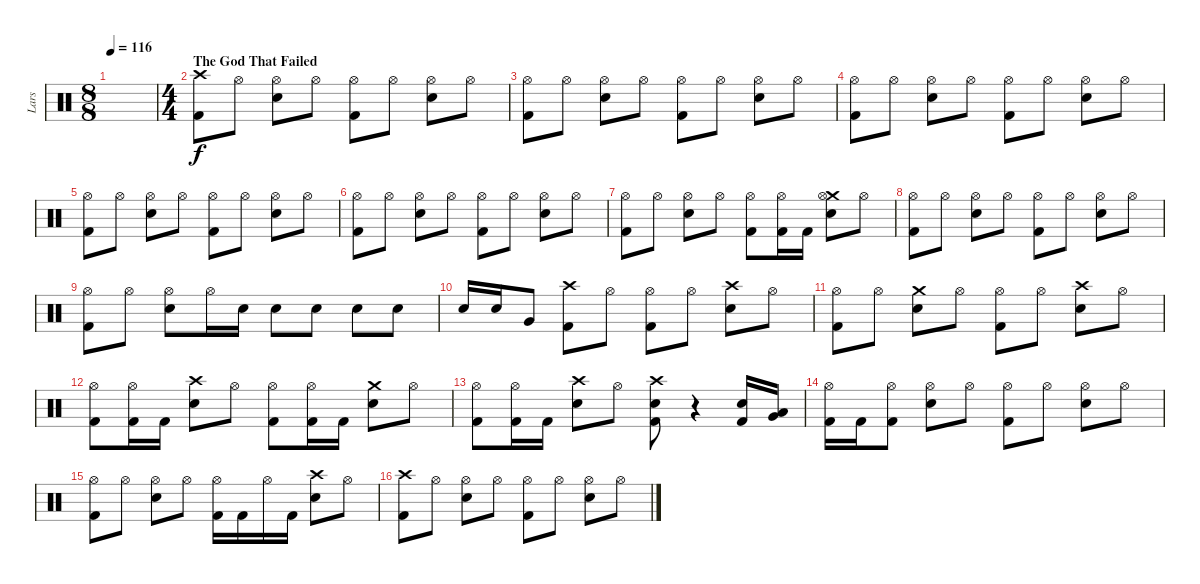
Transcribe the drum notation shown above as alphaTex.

\track ("Lars" "Lars") {instrument percussion}
\staff {score}
\articulation defaults
\ts (8 8)
\tempo 116
\clef neutral
\ks c
|
\ts (4 4)
\section ("" "The God That Failed")
("Crash high (hit)" "Kick (hit) 2").8{dy f} "Hi-Hat (open)".8 ("Snare (hit) 2" "Hi-Hat (open)").8 "Hi-Hat (open)".8 ("Kick (hit) 2" "Hi-Hat (open)").8 "Hi-Hat (open)".8 ("Snare (hit) 2" "Hi-Hat (open)").8 "Hi-Hat (open)".8 |
("Kick (hit) 2" "Hi-Hat (open)").8 "Hi-Hat (open)".8 ("Snare (hit) 2" "Hi-Hat (open)").8 "Hi-Hat (open)".8 ("Kick (hit) 2" "Hi-Hat (open)").8 "Hi-Hat (open)".8 ("Snare (hit) 2" "Hi-Hat (open)").8 "Hi-Hat (open)".8 |
("Kick (hit) 2" "Hi-Hat (open)").8 "Hi-Hat (open)".8 ("Hi-Hat (open)" "Snare (hit) 2").8 "Hi-Hat (open)".8 ("Hi-Hat (open)" "Kick (hit) 2").8 "Hi-Hat (open)".8 ("Snare (hit) 2" "Hi-Hat (open)").8 "Hi-Hat (open)".8 |
("Kick (hit) 2" "Hi-Hat (open)").8 "Hi-Hat (open)".8 ("Snare (hit) 2" "Hi-Hat (open)").8 "Hi-Hat (open)".8 ("Kick (hit) 2" "Hi-Hat (open)").8 "Hi-Hat (open)".8 ("Snare (hit) 2" "Hi-Hat (open)").8 "Hi-Hat (open)".8 |
("Kick (hit) 2" "Hi-Hat (open)").8 "Hi-Hat (open)".8 ("Snare (hit) 2" "Hi-Hat (open)").8 "Hi-Hat (open)".8 ("Kick (hit) 2" "Hi-Hat (open)").8 "Hi-Hat (open)".8 ("Snare (hit) 2" "Hi-Hat (open)").8 "Hi-Hat (open)".8 |
("Kick (hit) 2" "Hi-Hat (open)").8 "Hi-Hat (open)".8 ("Snare (hit) 2" "Hi-Hat (open)").8 "Hi-Hat (open)".8 ("Kick (hit) 2" "Hi-Hat (open)").8 ("Kick (hit) 2" "Hi-Hat (open)").16 "Kick (hit) 2".16 ("Crash medium (hit)" "Hi-Hat (open)" "Snare (hit) 2").8 "Hi-Hat (open)".8 |
("Kick (hit) 2" "Hi-Hat (open)").8 "Hi-Hat (open)".8 ("Snare (hit) 2" "Hi-Hat (open)").8 "Hi-Hat (open)".8 ("Kick (hit) 2" "Hi-Hat (open)").8 "Hi-Hat (open)".8 ("Snare (hit) 2" "Hi-Hat (open)").8 "Hi-Hat (open)".8 |
("Hi-Hat (open)" "Kick (hit) 2").8 "Hi-Hat (open)".8 ("Hi-Hat (open)" "Snare (hit) 2").8 "Hi-Hat (open)".16 "Snare (hit) 2".16 "Snare (hit) 2".8 "Snare (hit) 2".8 "Snare (hit) 2".8 "Snare (hit) 2".8 |
"Snare (hit) 2".16 "Snare (hit) 2".16 "Very Low Tom (hit)".8 ("Crash high (hit)" "Kick (hit) 2").8 "Hi-Hat (open)".8 ("Kick (hit) 2" "Hi-Hat (open)").8 "Hi-Hat (open)".8 ("Crash high (hit)" "Snare (hit) 2").8 "Hi-Hat (open)".8 |
("Kick (hit) 2" "Hi-Hat (open)").8 "Hi-Hat (open)".8 ("Snare (hit) 2" "Crash medium (hit)").8 "Hi-Hat (open)".8 ("Kick (hit) 2" "Hi-Hat (open)").8 "Hi-Hat (open)".8 ("Crash high (hit)" "Snare (hit) 2").8 "Hi-Hat (open)".8 |
("Kick (hit) 2" "Hi-Hat (open)").8 ("Hi-Hat (open)" "Kick (hit) 2").16 "Kick (hit) 2".16 ("Crash high (hit)" "Snare (hit) 2").8 "Hi-Hat (open)".8 ("Kick (hit) 2" "Hi-Hat (open)").8 ("Hi-Hat (open)" "Kick (hit) 2").16 "Kick (hit) 2".16 ("Snare (hit) 2" "Crash medium (hit)").8 "Hi-Hat (open)".8 |
("Kick (hit) 2" "Hi-Hat (open)").8 ("Hi-Hat (open)" "Kick (hit) 2").16 "Kick (hit) 2".16 ("Crash high (hit)" "Snare (hit) 2").8 "Hi-Hat (open)".8 ("Snare (hit) 2" "Crash high (hit)" "Kick (hit) 2").8 r.4 ("Kick (hit) 2" "Snare (hit) 2").16 ("Very Low Tom (hit)" "Low Tom (hit)").16 |
("Hi-Hat (open)" "Kick (hit) 2").16 "Kick (hit) 2".16 ("Kick (hit) 2" "Hi-Hat (open)").8 ("Snare (hit) 2" "Hi-Hat (open)").8 "Hi-Hat (open)".8 ("Hi-Hat (open)" "Kick (hit) 2").8 "Hi-Hat (open)".8 ("Hi-Hat (open)" "Snare (hit) 2").8 "Hi-Hat (open)".8 |
("Hi-Hat (open)" "Kick (hit) 2").8 "Hi-Hat (open)".8 ("Snare (hit) 2" "Hi-Hat (open)").8 "Hi-Hat (open)".8 ("Hi-Hat (open)" "Kick (hit) 2").16 "Kick (hit) 2".16 "Hi-Hat (open)".16 "Kick (hit) 2".16 ("Crash high (hit)" "Snare (hit) 2").8 "Hi-Hat (open)".8 |
("Kick (hit) 2" "Crash high (hit)").8 "Hi-Hat (open)".8 ("Snare (hit) 2" "Hi-Hat (open)").8 "Hi-Hat (open)".8 ("Kick (hit) 2" "Hi-Hat (open)").8 "Hi-Hat (open)".8 ("Snare (hit) 2" "Hi-Hat (open)").8 "Hi-Hat (open)".8
